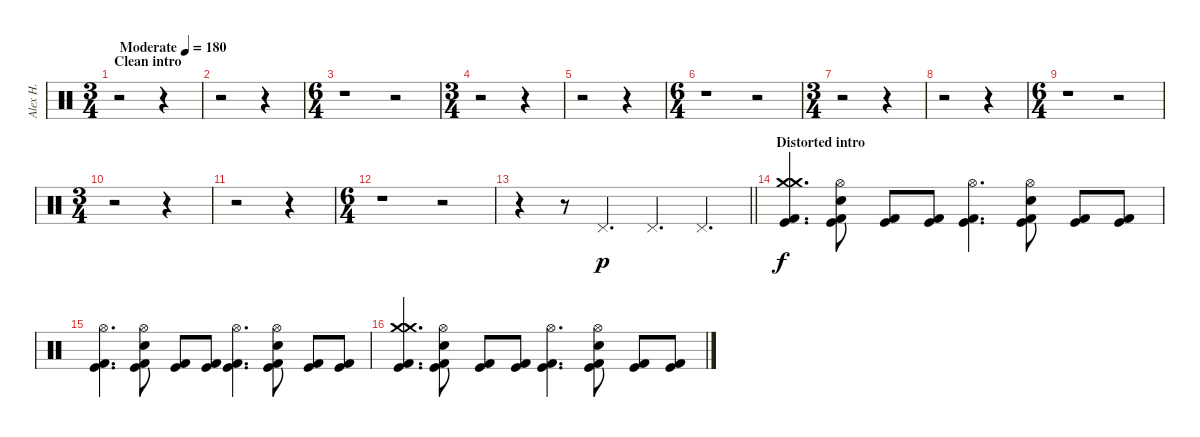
\track ("Alex H." "Alex H.") {instrument percussion}
\staff {score}
\articulation defaults
\ts (3 4)
\section ("" "Clean intro")
\tempo (180 "Moderate")
\clef neutral
\ks c
r.2{dy p} r.4 |
r.2 r.4 |
\ts (6 4)
r.1 r.2 |
\ts (3 4)
r.2 r.4 |
r.2 r.4 |
\ts (6 4)
r.1 r.2 |
\ts (3 4)
r.2 r.4 |
r.2 r.4 |
\ts (6 4)
r.1 r.2 |
\ts (3 4)
r.2 r.4 |
r.2 r.4 |
\ts (6 4)
r.1 r.2 |
\barLineRight lightlight
r.4 r.8 "Pedal Hi-Hat (hit)".4{d} "Pedal Hi-Hat (hit)".4{d} "Pedal Hi-Hat (hit)".4{d} |
\section ("" "Distorted intro")
("Kick (hit) 2" "Crash medium (hit)" "Crash medium (hit)" "Kick (hit)").4{d dy f} ("Kick (hit) 2" "Electric Snare (hit)" "Hi-Hat (open)" "Kick (hit)").8 ("Kick (hit) 2" "Kick (hit)").8 ("Kick (hit) 2" "Kick (hit)").8 ("Kick (hit) 2" "Hi-Hat (open)" "Kick (hit)").4{d} ("Kick (hit) 2" "Electric Snare (hit)" "Hi-Hat (open)" "Kick (hit)").8 ("Kick (hit) 2" "Kick (hit)").8 ("Kick (hit) 2" "Kick (hit)").8 |
("Kick (hit) 2" "Hi-Hat (open)" "Kick (hit)").4{d} ("Kick (hit) 2" "Electric Snare (hit)" "Hi-Hat (open)" "Kick (hit)").8 ("Kick (hit) 2" "Kick (hit)").8 ("Kick (hit) 2" "Kick (hit)").8 ("Kick (hit) 2" "Hi-Hat (open)" "Kick (hit)").4{d} ("Kick (hit) 2" "Electric Snare (hit)" "Hi-Hat (open)" "Kick (hit)").8 ("Kick (hit) 2" "Kick (hit)").8 ("Kick (hit) 2" "Kick (hit)").8 |
("Kick (hit) 2" "Crash medium (hit)" "Crash medium (hit)" "Kick (hit)").4{d} ("Kick (hit) 2" "Electric Snare (hit)" "Hi-Hat (open)" "Kick (hit)").8 ("Kick (hit) 2" "Kick (hit)").8 ("Kick (hit) 2" "Kick (hit)").8 ("Kick (hit) 2" "Hi-Hat (open)" "Kick (hit)").4{d} ("Kick (hit) 2" "Electric Snare (hit)" "Hi-Hat (open)" "Kick (hit)").8 ("Kick (hit) 2" "Kick (hit)").8 ("Kick (hit) 2" "Kick (hit)").8
